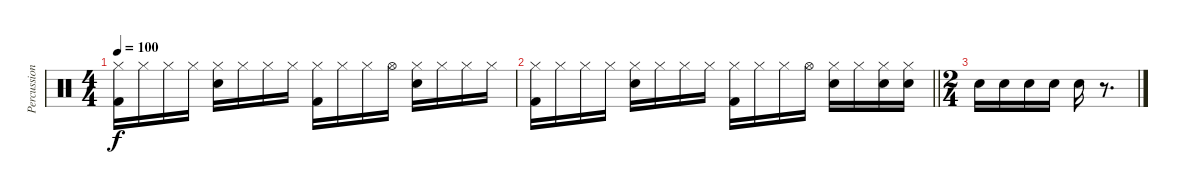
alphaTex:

\track ("Percussion" "Percussion") {instrument percussion}
\staff {score}
\articulation defaults
\ts (4 4)
\tempo 100
\clef neutral
\ks c
("Kick (hit) 2" "Hi-Hat (closed)").16{dy f} "Hi-Hat (closed)".16 "Hi-Hat (closed)".16 "Hi-Hat (closed)".16 ("Electric Snare (hit)" "Hi-Hat (closed)").16 "Hi-Hat (closed)".16 "Hi-Hat (closed)".16 "Hi-Hat (closed)".16 ("Kick (hit) 2" "Hi-Hat (closed)").16 "Hi-Hat (closed)".16 "Hi-Hat (closed)".16 "Hi-Hat (open)".16 ("Hi-Hat (closed)" "Electric Snare (hit)").16 "Hi-Hat (closed)".16 "Hi-Hat (closed)".16 "Hi-Hat (closed)".16 |
\barLineRight lightlight
("Kick (hit) 2" "Hi-Hat (closed)").16 "Hi-Hat (closed)".16 "Hi-Hat (closed)".16 "Hi-Hat (closed)".16 ("Electric Snare (hit)" "Hi-Hat (closed)").16 "Hi-Hat (closed)".16 "Hi-Hat (closed)".16 "Hi-Hat (closed)".16 ("Kick (hit) 2" "Hi-Hat (closed)").16 "Hi-Hat (closed)".16 "Hi-Hat (closed)".16 "Hi-Hat (open)".16 ("Hi-Hat (closed)" "Electric Snare (hit)").16 "Hi-Hat (closed)".16 ("Hi-Hat (closed)" "Snare (hit) 2").16 ("Hi-Hat (closed)" "Snare (hit) 2").16 |
\ts (2 4)
"Snare (hit) 2".16 "Snare (hit) 2".16 "Snare (hit) 2".16 "Snare (hit) 2".16 "Snare (hit) 2".16 r.8{d}
